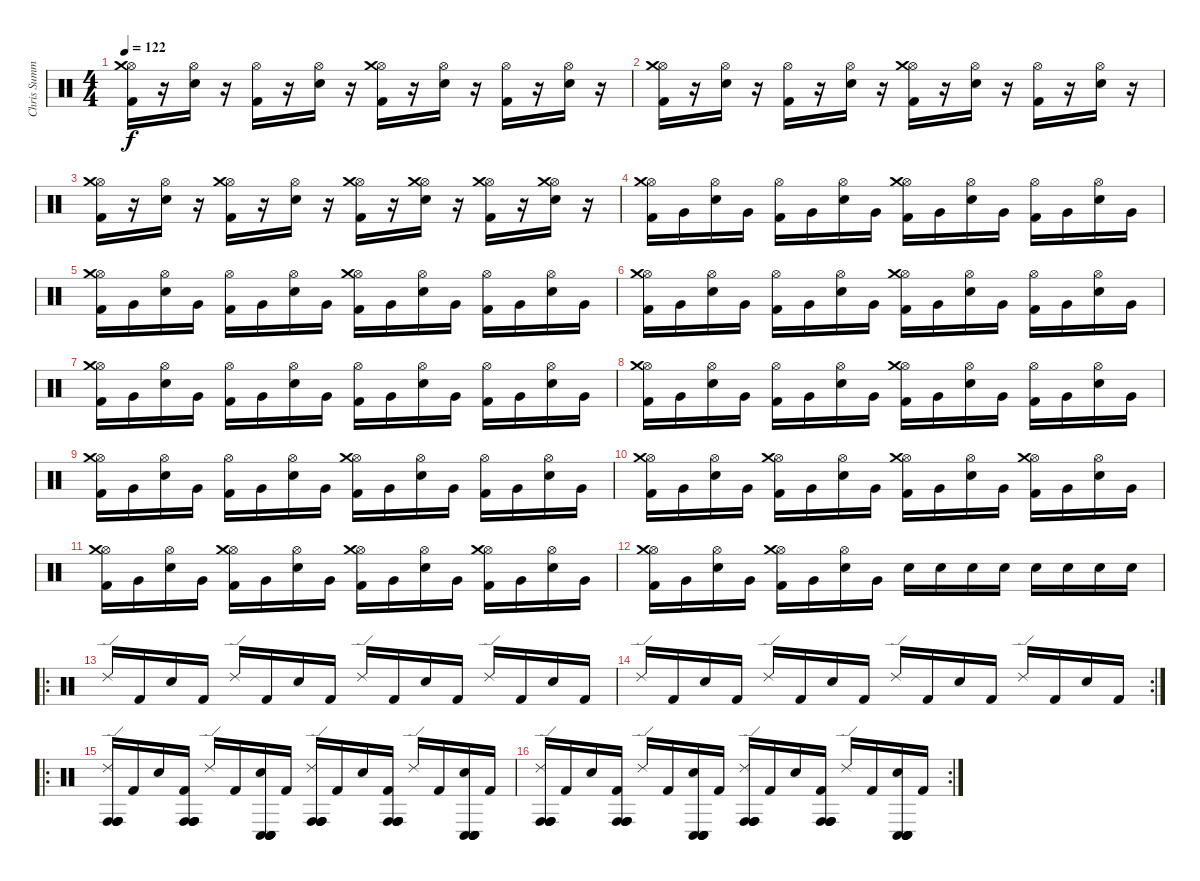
\track ("Chris Summers" "Chris Summ") {instrument percussion}
\staff {score}
\articulation defaults
\ts (4 4)
\tempo 122
\clef neutral
\ks c
("Kick (hit) 2" "Hi-Hat (open)" "Crash medium (hit)").16{dy f} r.16 ("Electric Snare (hit)" "Hi-Hat (open)").16 r.16 ("Kick (hit) 2" "Hi-Hat (open)").16 r.16 ("Electric Snare (hit)" "Hi-Hat (open)").16 r.16 ("Kick (hit) 2" "Hi-Hat (open)" "Crash medium (hit)").16 r.16 ("Electric Snare (hit)" "Hi-Hat (open)").16 r.16 ("Kick (hit) 2" "Hi-Hat (open)").16 r.16 ("Electric Snare (hit)" "Hi-Hat (open)").16 r.16 |
("Kick (hit) 2" "Hi-Hat (open)" "Crash medium (hit)").16 r.16 ("Electric Snare (hit)" "Hi-Hat (open)").16 r.16 ("Kick (hit) 2" "Hi-Hat (open)").16 r.16 ("Electric Snare (hit)" "Hi-Hat (open)").16 r.16 ("Kick (hit) 2" "Hi-Hat (open)" "Crash medium (hit)").16 r.16 ("Electric Snare (hit)" "Hi-Hat (open)").16 r.16 ("Kick (hit) 2" "Hi-Hat (open)").16 r.16 ("Electric Snare (hit)" "Hi-Hat (open)").16 r.16 |
("Kick (hit) 2" "Hi-Hat (open)" "Crash medium (hit)").16 r.16 ("Electric Snare (hit)" "Hi-Hat (open)").16 r.16 ("Kick (hit) 2" "Hi-Hat (open)" "Crash medium (hit)").16 r.16 ("Electric Snare (hit)" "Hi-Hat (open)").16 r.16 ("Kick (hit) 2" "Hi-Hat (open)" "Crash medium (hit)").16 r.16 ("Electric Snare (hit)" "Hi-Hat (open)" "Crash medium (hit)").16 r.16 ("Kick (hit) 2" "Hi-Hat (open)" "Crash medium (hit)").16 r.16 ("Electric Snare (hit)" "Hi-Hat (open)" "Crash medium (hit)").16 r.16 |
("Kick (hit) 2" "Hi-Hat (open)" "Crash medium (hit)").16 "Very Low Tom (hit)".16 ("Electric Snare (hit)" "Hi-Hat (open)").16 "Very Low Tom (hit)".16 ("Kick (hit) 2" "Hi-Hat (open)").16 "Very Low Tom (hit)".16 ("Electric Snare (hit)" "Hi-Hat (open)").16 "Very Low Tom (hit)".16 ("Kick (hit) 2" "Hi-Hat (open)" "Crash medium (hit)").16 "Very Low Tom (hit)".16 ("Electric Snare (hit)" "Hi-Hat (open)").16 "Very Low Tom (hit)".16 ("Kick (hit) 2" "Hi-Hat (open)").16 "Very Low Tom (hit)".16 ("Electric Snare (hit)" "Hi-Hat (open)").16 "Very Low Tom (hit)".16 |
("Kick (hit) 2" "Hi-Hat (open)" "Crash medium (hit)").16 "Very Low Tom (hit)".16 ("Electric Snare (hit)" "Hi-Hat (open)").16 "Very Low Tom (hit)".16 ("Kick (hit) 2" "Hi-Hat (open)").16 "Very Low Tom (hit)".16 ("Electric Snare (hit)" "Hi-Hat (open)").16 "Very Low Tom (hit)".16 ("Kick (hit) 2" "Hi-Hat (open)" "Crash medium (hit)").16 "Very Low Tom (hit)".16 ("Electric Snare (hit)" "Hi-Hat (open)").16 "Very Low Tom (hit)".16 ("Kick (hit) 2" "Hi-Hat (open)").16 "Very Low Tom (hit)".16 ("Electric Snare (hit)" "Hi-Hat (open)").16 "Very Low Tom (hit)".16 |
("Kick (hit) 2" "Hi-Hat (open)" "Crash medium (hit)").16 "Very Low Tom (hit)".16 ("Electric Snare (hit)" "Hi-Hat (open)").16 "Very Low Tom (hit)".16 ("Kick (hit) 2" "Hi-Hat (open)").16 "Very Low Tom (hit)".16 ("Electric Snare (hit)" "Hi-Hat (open)").16 "Very Low Tom (hit)".16 ("Kick (hit) 2" "Hi-Hat (open)" "Crash medium (hit)").16 "Very Low Tom (hit)".16 ("Electric Snare (hit)" "Hi-Hat (open)").16 "Very Low Tom (hit)".16 ("Kick (hit) 2" "Hi-Hat (open)").16 "Very Low Tom (hit)".16 ("Electric Snare (hit)" "Hi-Hat (open)").16 "Very Low Tom (hit)".16 |
("Kick (hit) 2" "Hi-Hat (open)" "Crash medium (hit)").16 "Very Low Tom (hit)".16 ("Electric Snare (hit)" "Hi-Hat (open)").16 "Very Low Tom (hit)".16 ("Kick (hit) 2" "Hi-Hat (open)").16 "Very Low Tom (hit)".16 ("Electric Snare (hit)" "Hi-Hat (open)").16 "Very Low Tom (hit)".16 ("Kick (hit) 2" "Hi-Hat (open)").16 "Very Low Tom (hit)".16 ("Electric Snare (hit)" "Hi-Hat (open)").16 "Very Low Tom (hit)".16 ("Kick (hit) 2" "Hi-Hat (open)").16 "Very Low Tom (hit)".16 ("Electric Snare (hit)" "Hi-Hat (open)").16 "Very Low Tom (hit)".16 |
("Kick (hit) 2" "Hi-Hat (open)" "Crash medium (hit)").16 "Very Low Tom (hit)".16 ("Electric Snare (hit)" "Hi-Hat (open)").16 "Very Low Tom (hit)".16 ("Kick (hit) 2" "Hi-Hat (open)").16 "Very Low Tom (hit)".16 ("Electric Snare (hit)" "Hi-Hat (open)").16 "Very Low Tom (hit)".16 ("Kick (hit) 2" "Hi-Hat (open)" "Crash medium (hit)").16 "Very Low Tom (hit)".16 ("Electric Snare (hit)" "Hi-Hat (open)").16 "Very Low Tom (hit)".16 ("Kick (hit) 2" "Hi-Hat (open)").16 "Very Low Tom (hit)".16 ("Electric Snare (hit)" "Hi-Hat (open)").16 "Very Low Tom (hit)".16 |
("Kick (hit) 2" "Hi-Hat (open)" "Crash medium (hit)").16 "Very Low Tom (hit)".16 ("Electric Snare (hit)" "Hi-Hat (open)").16 "Very Low Tom (hit)".16 ("Kick (hit) 2" "Hi-Hat (open)").16 "Very Low Tom (hit)".16 ("Electric Snare (hit)" "Hi-Hat (open)").16 "Very Low Tom (hit)".16 ("Kick (hit) 2" "Hi-Hat (open)" "Crash medium (hit)").16 "Very Low Tom (hit)".16 ("Electric Snare (hit)" "Hi-Hat (open)").16 "Very Low Tom (hit)".16 ("Kick (hit) 2" "Hi-Hat (open)").16 "Very Low Tom (hit)".16 ("Electric Snare (hit)" "Hi-Hat (open)").16 "Very Low Tom (hit)".16 |
("Kick (hit) 2" "Hi-Hat (open)" "Crash medium (hit)").16 "Very Low Tom (hit)".16 ("Electric Snare (hit)" "Hi-Hat (open)").16 "Very Low Tom (hit)".16 ("Kick (hit) 2" "Hi-Hat (open)" "Crash medium (hit)").16 "Very Low Tom (hit)".16 ("Electric Snare (hit)" "Hi-Hat (open)").16 "Very Low Tom (hit)".16 ("Kick (hit) 2" "Hi-Hat (open)" "Crash medium (hit)").16 "Very Low Tom (hit)".16 ("Electric Snare (hit)" "Hi-Hat (open)").16 "Very Low Tom (hit)".16 ("Kick (hit) 2" "Hi-Hat (open)" "Crash medium (hit)").16 "Very Low Tom (hit)".16 ("Electric Snare (hit)" "Hi-Hat (open)").16 "Very Low Tom (hit)".16 |
("Kick (hit) 2" "Hi-Hat (open)" "Crash medium (hit)").16 "Very Low Tom (hit)".16 ("Electric Snare (hit)" "Hi-Hat (open)").16 "Very Low Tom (hit)".16 ("Kick (hit) 2" "Hi-Hat (open)" "Crash medium (hit)").16 "Very Low Tom (hit)".16 ("Electric Snare (hit)" "Hi-Hat (open)").16 "Very Low Tom (hit)".16 ("Kick (hit) 2" "Hi-Hat (open)" "Crash medium (hit)").16 "Very Low Tom (hit)".16 ("Electric Snare (hit)" "Hi-Hat (open)").16 "Very Low Tom (hit)".16 ("Kick (hit) 2" "Hi-Hat (open)" "Crash medium (hit)").16 "Very Low Tom (hit)".16 ("Electric Snare (hit)" "Hi-Hat (open)").16 "Very Low Tom (hit)".16 |
("Kick (hit) 2" "Hi-Hat (open)" "Crash medium (hit)").16 "Very Low Tom (hit)".16 ("Electric Snare (hit)" "Hi-Hat (open)").16 "Very Low Tom (hit)".16 ("Kick (hit) 2" "Hi-Hat (open)" "Crash medium (hit)").16 "Very Low Tom (hit)".16 ("Electric Snare (hit)" "Hi-Hat (open)").16 "Very Low Tom (hit)".16 "Electric Snare (hit)".16 "Electric Snare (hit)".16 "Electric Snare (hit)".16 "Electric Snare (hit)".16 "Electric Snare (hit)".16 "Electric Snare (hit)".16 "Electric Snare (hit)".16 "Electric Snare (hit)".16 |
\ro "Ride (edge) 2".16 "Kick (hit) 2".16 "Electric Snare (hit)".16 "Kick (hit) 2".16 "Ride (edge) 2".16 "Kick (hit) 2".16 "Electric Snare (hit)".16 "Kick (hit) 2".16 "Ride (edge) 2".16 "Kick (hit) 2".16 "Electric Snare (hit)".16 "Kick (hit) 2".16 "Ride (edge) 2".16 "Kick (hit) 2".16 "Electric Snare (hit)".16 "Kick (hit) 2".16
|
\rc 2 "Ride (edge) 2".16 "Kick (hit) 2".16 "Electric Snare (hit)".16 "Kick (hit) 2".16 "Ride (edge) 2".16 "Kick (hit) 2".16 "Electric Snare (hit)".16 "Kick (hit) 2".16 "Ride (edge) 2".16 "Kick (hit) 2".16 "Electric Snare (hit)".16 "Kick (hit) 2".16 "Ride (edge) 2".16 "Kick (hit) 2".16 "Electric Snare (hit)".16 "Kick (hit) 2".16
|
\ro
("Conga high (hit)" "Ride (edge) 2" "Conga high (hit)" "Conga high (hit)" "Conga high (hit)").16 "Kick (hit) 2".16 "Electric Snare (hit)".16 ("Kick (hit) 2" "Conga high (hit)" "Conga high (hit)" "Conga high (hit)" "Conga high (hit)").16 "Ride (edge) 2".16 "Kick (hit) 2".16 ("Electric Snare (hit)" "Conga low (hit)" "Conga low (hit)" "Conga low (hit)" "Conga low (hit)").16 "Kick (hit) 2".16 ("Conga high (hit)" "Ride (edge) 2" "Conga high (hit)" "Conga high (hit)" "Conga high (hit)").16 "Kick (hit) 2".16 "Electric Snare (hit)".16 ("Kick (hit) 2" "Conga high (hit)" "Conga high (hit)" "Conga high (hit)" "Conga high (hit)").16 "Ride (edge) 2".16 "Kick (hit) 2".16 ("Electric Snare (hit)" "Conga low (hit)" "Conga low (hit)" "Conga low (hit)" "Conga low (hit)").16 "Kick (hit) 2".16 |
\rc 2
("Conga high (hit)" "Ride (edge) 2" "Conga high (hit)" "Conga high (hit)" "Conga high (hit)").16 "Kick (hit) 2".16 "Electric Snare (hit)".16 ("Kick (hit) 2" "Conga high (hit)" "Conga high (hit)" "Conga high (hit)" "Conga high (hit)").16 "Ride (edge) 2".16 "Kick (hit) 2".16 ("Electric Snare (hit)" "Conga low (hit)" "Conga low (hit)" "Conga low (hit)" "Conga low (hit)").16 "Kick (hit) 2".16 ("Conga high (hit)" "Ride (edge) 2" "Conga high (hit)" "Conga high (hit)" "Conga high (hit)").16 "Kick (hit) 2".16 "Electric Snare (hit)".16 ("Kick (hit) 2" "Conga high (hit)" "Conga high (hit)" "Conga high (hit)" "Conga high (hit)").16 "Ride (edge) 2".16 "Kick (hit) 2".16 ("Electric Snare (hit)" "Conga low (hit)" "Conga low (hit)" "Conga low (hit)" "Conga low (hit)").16 "Kick (hit) 2".16
